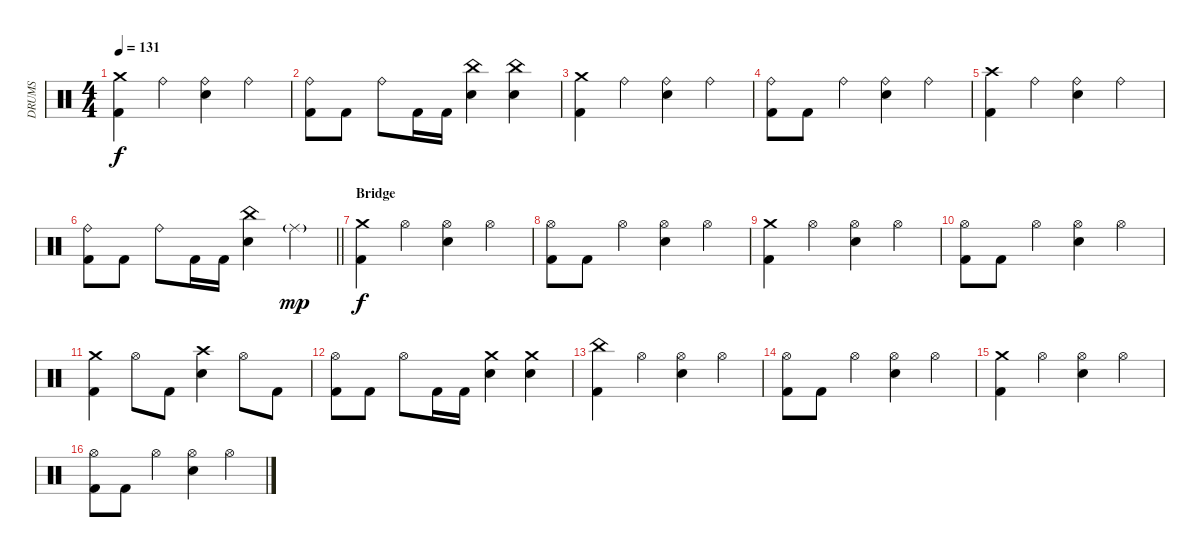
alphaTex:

\track ("DRUMS" "DRUMS") {instrument percussion}
\staff {score}
\articulation defaults
\ts (4 4)
\tempo 131
\clef neutral
\ks c
("Crash medium (hit)" "Kick (hit) 2").4{dy f} "Ride (bell)".4 ("Ride (bell)" "Snare (hit) 2").4 "Ride (bell)".4 |
("Ride (bell)" "Kick (hit) 2").8 "Kick (hit) 2".8 "Ride (bell)".8 "Kick (hit) 2".16 "Kick (hit) 2".16 ("China (hit)" "Snare (hit) 2").4 ("China (hit)" "Snare (hit) 2").4 |
("Crash medium (hit)" "Kick (hit) 2").4 "Ride (bell)".4 ("Ride (bell)" "Snare (hit) 2").4 "Ride (bell)".4 |
("Ride (bell)" "Kick (hit) 2").8 "Kick (hit) 2".8 "Ride (bell)".4 ("Ride (bell)" "Snare (hit) 2").4 "Ride (bell)".4 |
("Crash high (hit)" "Kick (hit) 2").4 "Ride (bell)".4 ("Ride (bell)" "Snare (hit) 2").4 "Ride (bell)".4 |
\barLineRight lightlight
("Ride (bell)" "Kick (hit) 2").8 "Kick (hit) 2".8 "Ride (bell)".8 "Kick (hit) 2".16 "Kick (hit) 2".16 ("China (hit)" "Snare (hit) 2").4 "Ride (middle)"{g}.4{dy mp} |
\section ("" "Bridge")
("Crash medium (hit)" "Kick (hit) 2").4{dy f} "Hi-Hat (open)".4 ("Hi-Hat (open)" "Snare (hit) 2").4 "Hi-Hat (open)".4 |
("Hi-Hat (open)" "Kick (hit) 2").8 "Kick (hit) 2".8 "Hi-Hat (open)".4 ("Hi-Hat (open)" "Snare (hit) 2").4 "Hi-Hat (open)".4 |
("Crash medium (hit)" "Kick (hit) 2").4 "Hi-Hat (open)".4 ("Hi-Hat (open)" "Snare (hit) 2").4 "Hi-Hat (open)".4 |
("Hi-Hat (open)" "Kick (hit) 2").8 "Kick (hit) 2".8 "Hi-Hat (open)".4 ("Hi-Hat (open)" "Snare (hit) 2").4 "Hi-Hat (open)".4 |
("Crash medium (hit)" "Kick (hit) 2").4 "Hi-Hat (open)".8 "Kick (hit) 2".8 ("Crash high (hit)" "Snare (hit) 2").4 "Hi-Hat (open)".8 "Kick (hit) 2".8 |
("Hi-Hat (open)" "Kick (hit) 2").8 "Kick (hit) 2".8 "Hi-Hat (open)".8 "Kick (hit) 2".16 "Kick (hit) 2".16 ("Crash medium (hit)" "Snare (hit) 2").4 ("Crash medium (hit)" "Snare (hit) 2").4 |
("China (hit)" "Kick (hit) 2").4 "Hi-Hat (open)".4 ("Hi-Hat (open)" "Snare (hit) 2").4 "Hi-Hat (open)".4 |
("Hi-Hat (open)" "Kick (hit) 2").8 "Kick (hit) 2".8 "Hi-Hat (open)".4 ("Hi-Hat (open)" "Snare (hit) 2").4 "Hi-Hat (open)".4 |
("Crash medium (hit)" "Kick (hit) 2").4 "Hi-Hat (open)".4 ("Hi-Hat (open)" "Snare (hit) 2").4 "Hi-Hat (open)".4 |
("Hi-Hat (open)" "Kick (hit) 2").8 "Kick (hit) 2".8 "Hi-Hat (open)".4 ("Hi-Hat (open)" "Snare (hit) 2").4 "Hi-Hat (open)".4
